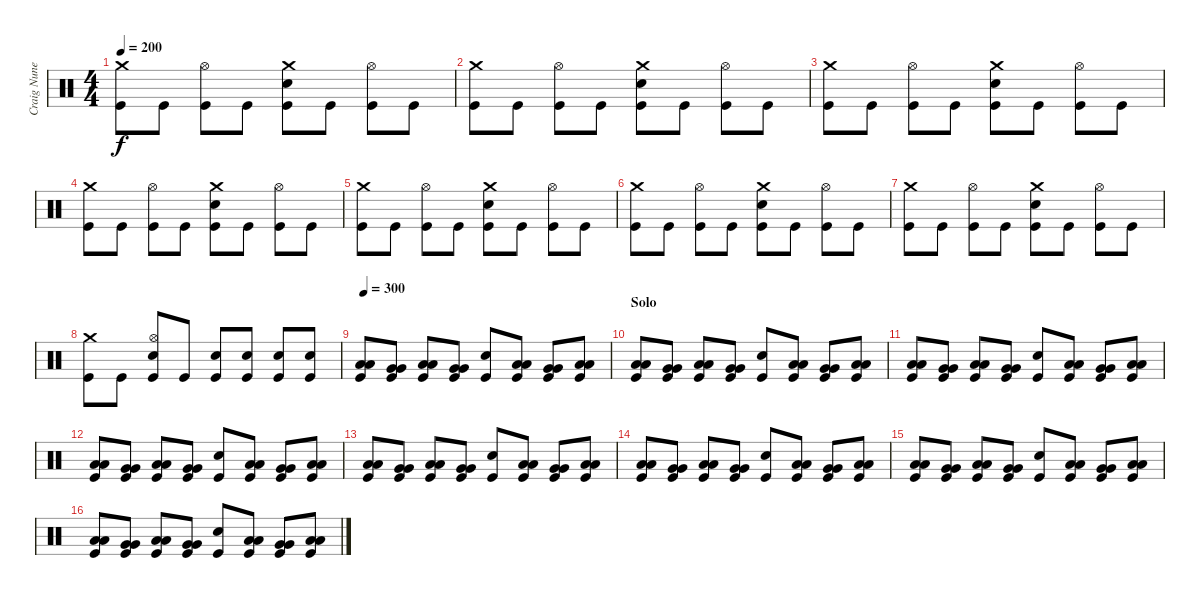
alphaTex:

\track ("Craig Nunenmacher" "Craig Nune") {instrument percussion}
\staff {score}
\articulation defaults
\ts (4 4)
\tempo 200
\clef neutral
\ks c
("Crash medium (hit)" "Kick (hit)").8{dy f} "Kick (hit)".8 ("Hi-Hat (open)" "Kick (hit)").8 "Kick (hit)".8 ("Crash medium (hit)" "Snare (hit) 2" "Kick (hit)").8 "Kick (hit)".8 ("Hi-Hat (open)" "Kick (hit)").8 "Kick (hit)".8 |
("Crash medium (hit)" "Kick (hit)").8 "Kick (hit)".8 ("Hi-Hat (open)" "Kick (hit)").8 "Kick (hit)".8 ("Crash medium (hit)" "Snare (hit) 2" "Kick (hit)").8 "Kick (hit)".8 ("Hi-Hat (open)" "Kick (hit)").8 "Kick (hit)".8 |
("Crash medium (hit)" "Kick (hit)").8 "Kick (hit)".8 ("Hi-Hat (open)" "Kick (hit)").8 "Kick (hit)".8 ("Crash medium (hit)" "Snare (hit) 2" "Kick (hit)").8 "Kick (hit)".8 ("Hi-Hat (open)" "Kick (hit)").8 "Kick (hit)".8 |
("Crash medium (hit)" "Kick (hit)").8 "Kick (hit)".8 ("Hi-Hat (open)" "Kick (hit)").8 "Kick (hit)".8 ("Crash medium (hit)" "Snare (hit) 2" "Kick (hit)").8 "Kick (hit)".8 ("Hi-Hat (open)" "Kick (hit)").8 "Kick (hit)".8 |
("Crash medium (hit)" "Kick (hit)").8 "Kick (hit)".8 ("Hi-Hat (open)" "Kick (hit)").8 "Kick (hit)".8 ("Crash medium (hit)" "Snare (hit) 2" "Kick (hit)").8 "Kick (hit)".8 ("Hi-Hat (open)" "Kick (hit)").8 "Kick (hit)".8 |
("Crash medium (hit)" "Kick (hit)").8 "Kick (hit)".8 ("Hi-Hat (open)" "Kick (hit)").8 "Kick (hit)".8 ("Crash medium (hit)" "Snare (hit) 2" "Kick (hit)").8 "Kick (hit)".8 ("Hi-Hat (open)" "Kick (hit)").8 "Kick (hit)".8 |
("Crash medium (hit)" "Kick (hit)").8 "Kick (hit)".8 ("Hi-Hat (open)" "Kick (hit)").8 "Kick (hit)".8 ("Crash medium (hit)" "Snare (hit) 2" "Kick (hit)").8 "Kick (hit)".8 ("Hi-Hat (open)" "Kick (hit)").8 "Kick (hit)".8 |
("Crash medium (hit)" "Kick (hit)").8 "Kick (hit)".8 ("Hi-Hat (open)" "Snare (hit) 2" "Kick (hit)").8 "Kick (hit)".8 ("Snare (hit) 2" "Kick (hit)").8 ("Snare (hit) 2" "Kick (hit)").8 ("Snare (hit) 2" "Kick (hit)").8 ("Snare (hit) 2" "Kick (hit)").8 |
\tempo 300
("Low Tom (hit)" "Low Tom (hit)" "Kick (hit)").8 ("Very Low Tom (hit)" "Very Low Tom (hit)" "Kick (hit)").8 ("Low Tom (hit)" "Low Tom (hit)" "Kick (hit)").8 ("Very Low Tom (hit)" "Very Low Tom (hit)" "Kick (hit)").8 ("Snare (hit) 2" "Kick (hit)").8 ("Low Tom (hit)" "Low Tom (hit)" "Kick (hit)").8 ("Very Low Tom (hit)" "Very Low Tom (hit)" "Kick (hit)").8 ("Low Tom (hit)" "Low Tom (hit)" "Kick (hit)").8 |
\section ("" "Solo")
("Low Tom (hit)" "Low Tom (hit)" "Kick (hit)").8 ("Very Low Tom (hit)" "Very Low Tom (hit)" "Kick (hit)").8 ("Low Tom (hit)" "Low Tom (hit)" "Kick (hit)").8 ("Very Low Tom (hit)" "Very Low Tom (hit)" "Kick (hit)").8 ("Snare (hit) 2" "Kick (hit)").8 ("Low Tom (hit)" "Low Tom (hit)" "Kick (hit)").8 ("Very Low Tom (hit)" "Very Low Tom (hit)" "Kick (hit)").8 ("Low Tom (hit)" "Low Tom (hit)" "Kick (hit)").8 |
("Low Tom (hit)" "Low Tom (hit)" "Kick (hit)").8 ("Very Low Tom (hit)" "Very Low Tom (hit)" "Kick (hit)").8 ("Low Tom (hit)" "Low Tom (hit)" "Kick (hit)").8 ("Very Low Tom (hit)" "Very Low Tom (hit)" "Kick (hit)").8 ("Snare (hit) 2" "Kick (hit)").8 ("Low Tom (hit)" "Low Tom (hit)" "Kick (hit)").8 ("Very Low Tom (hit)" "Very Low Tom (hit)" "Kick (hit)").8 ("Low Tom (hit)" "Low Tom (hit)" "Kick (hit)").8 |
("Low Tom (hit)" "Low Tom (hit)" "Kick (hit)").8 ("Very Low Tom (hit)" "Very Low Tom (hit)" "Kick (hit)").8 ("Low Tom (hit)" "Low Tom (hit)" "Kick (hit)").8 ("Very Low Tom (hit)" "Very Low Tom (hit)" "Kick (hit)").8 ("Snare (hit) 2" "Kick (hit)").8 ("Low Tom (hit)" "Low Tom (hit)" "Kick (hit)").8 ("Very Low Tom (hit)" "Very Low Tom (hit)" "Kick (hit)").8 ("Low Tom (hit)" "Low Tom (hit)" "Kick (hit)").8 |
("Low Tom (hit)" "Low Tom (hit)" "Kick (hit)").8 ("Very Low Tom (hit)" "Very Low Tom (hit)" "Kick (hit)").8 ("Low Tom (hit)" "Low Tom (hit)" "Kick (hit)").8 ("Very Low Tom (hit)" "Very Low Tom (hit)" "Kick (hit)").8 ("Snare (hit) 2" "Kick (hit)").8 ("Low Tom (hit)" "Low Tom (hit)" "Kick (hit)").8 ("Very Low Tom (hit)" "Very Low Tom (hit)" "Kick (hit)").8 ("Low Tom (hit)" "Low Tom (hit)" "Kick (hit)").8 |
("Low Tom (hit)" "Low Tom (hit)" "Kick (hit)").8 ("Very Low Tom (hit)" "Very Low Tom (hit)" "Kick (hit)").8 ("Low Tom (hit)" "Low Tom (hit)" "Kick (hit)").8 ("Very Low Tom (hit)" "Very Low Tom (hit)" "Kick (hit)").8 ("Snare (hit) 2" "Kick (hit)").8 ("Low Tom (hit)" "Low Tom (hit)" "Kick (hit)").8 ("Very Low Tom (hit)" "Very Low Tom (hit)" "Kick (hit)").8 ("Low Tom (hit)" "Low Tom (hit)" "Kick (hit)").8 |
("Low Tom (hit)" "Low Tom (hit)" "Kick (hit)").8 ("Very Low Tom (hit)" "Very Low Tom (hit)" "Kick (hit)").8 ("Low Tom (hit)" "Low Tom (hit)" "Kick (hit)").8 ("Very Low Tom (hit)" "Very Low Tom (hit)" "Kick (hit)").8 ("Snare (hit) 2" "Kick (hit)").8 ("Low Tom (hit)" "Low Tom (hit)" "Kick (hit)").8 ("Very Low Tom (hit)" "Very Low Tom (hit)" "Kick (hit)").8 ("Low Tom (hit)" "Low Tom (hit)" "Kick (hit)").8 |
("Low Tom (hit)" "Low Tom (hit)" "Kick (hit)").8 ("Very Low Tom (hit)" "Very Low Tom (hit)" "Kick (hit)").8 ("Low Tom (hit)" "Low Tom (hit)" "Kick (hit)").8 ("Very Low Tom (hit)" "Very Low Tom (hit)" "Kick (hit)").8 ("Snare (hit) 2" "Kick (hit)").8 ("Low Tom (hit)" "Low Tom (hit)" "Kick (hit)").8 ("Very Low Tom (hit)" "Very Low Tom (hit)" "Kick (hit)").8 ("Low Tom (hit)" "Low Tom (hit)" "Kick (hit)").8
